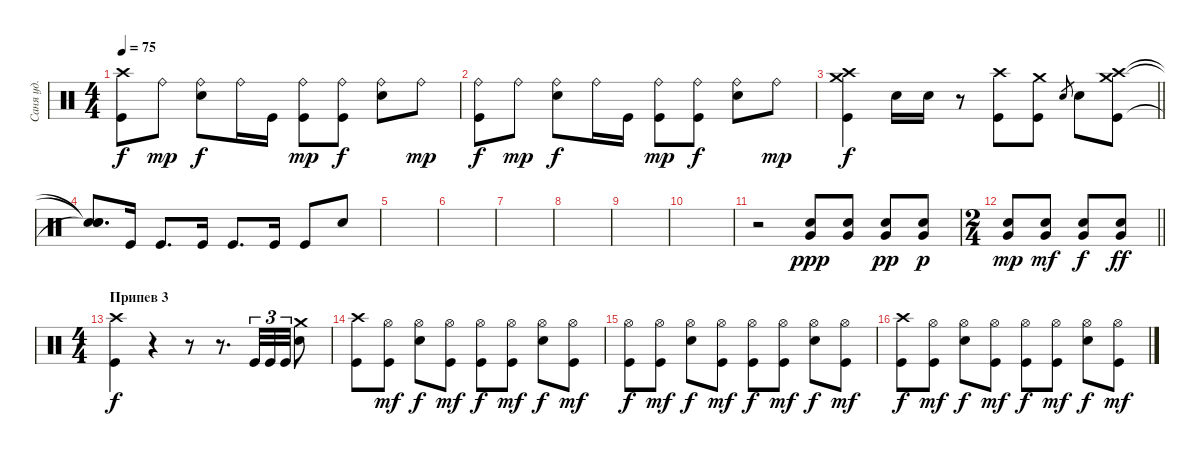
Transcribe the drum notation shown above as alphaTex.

\track ("Саня уд." "Саня уд.") {instrument percussion}
\staff {score}
\articulation defaults
\ts (4 4)
\tempo 75
\clef neutral
\ks c
("Kick (hit)" "Crash high (hit)").8{dy f} "Ride (bell)".8{dy mp} ("Ride (bell)" "Snare (hit) 2").8{dy f} "Ride (bell)".16 "Kick (hit)".16 ("Ride (bell)" "Kick (hit)").8{dy mp} ("Ride (bell)" "Kick (hit)").8{dy f} ("Ride (bell)" "Snare (hit) 2").8 "Ride (bell)".8{dy mp} |
("Kick (hit)" "Ride (bell)").8{dy f} "Ride (bell)".8{dy mp} ("Ride (bell)" "Snare (hit) 2").8{dy f} "Ride (bell)".16 "Kick (hit)".16 ("Ride (bell)" "Kick (hit)").8{dy mp} ("Ride (bell)" "Kick (hit)").8{dy f} ("Ride (bell)" "Snare (hit) 2").8 "Ride (bell)".8{dy mp} |
\barLineRight lightlight
("Crash high (hit)" "Crash medium (hit)" "Kick (hit)").4{dy f} "Snare (hit) 2".16 "Snare (hit) 2".16 r.8 ("Crash high (hit)" "Kick (hit)").8 ("Crash medium (hit)" "Kick (hit)").8 "Snare (hit) 2".8{gr} "Snare (hit) 2".8 ("Crash medium (hit)" "Crash high (hit)" "Kick (hit)").8 |
\section ("" "")
("Snare (hit)"{t} "Snare (hit)"{t} "Snare (hit)"{t}).8{d} "Kick (hit)".16 "Kick (hit)".8{d} "Kick (hit)".16 "Kick (hit)".8{d} "Kick (hit)".16 "Kick (hit)".8 "Snare (hit) 2".8 |
|
|
|
|
|
|
r.2 ("Snare (hit) 2" "Very Low Tom (hit)").8{dy ppp} ("Snare (hit) 2" "Very Low Tom (hit)").8 ("Snare (hit) 2" "Very Low Tom (hit)").8{dy pp} ("Snare (hit) 2" "Very Low Tom (hit)").8{dy p} |
\ts (2 4)
\barLineRight lightlight
("Very Low Tom (hit)" "Snare (hit) 2").8{dy mp} ("Very Low Tom (hit)" "Snare (hit) 2").8{dy mf} ("Very Low Tom (hit)" "Snare (hit) 2").8{dy f} ("Very Low Tom (hit)" "Snare (hit) 2").8{dy ff} |
\ts (4 4)
\section ("" "Припев 3")
("Kick (hit)" "Crash high (hit)").4{dy f} r.4 r.8 r.8{d} "Kick (hit)".32{tu (3 2)} "Kick (hit)".32{tu (3 2)} "Kick (hit)".32{tu (3 2)} ("Snare (hit) 2" "Crash medium (hit)").8 |
("Kick (hit)" "Crash high (hit)").8 ("Kick (hit)" "Hi-Hat (open)").8{dy mf} ("Snare (hit) 2" "Hi-Hat (open)").8{dy f} ("Kick (hit)" "Hi-Hat (open)").8{dy mf} ("Kick (hit)" "Hi-Hat (open)").8{dy f} ("Kick (hit)" "Hi-Hat (open)").8{dy mf} ("Snare (hit) 2" "Hi-Hat (open)").8{dy f} ("Kick (hit)" "Hi-Hat (open)").8{dy mf} |
("Kick (hit)" "Hi-Hat (open)").8{dy f} ("Kick (hit)" "Hi-Hat (open)").8{dy mf} ("Snare (hit) 2" "Hi-Hat (open)").8{dy f} ("Kick (hit)" "Hi-Hat (open)").8{dy mf} ("Kick (hit)" "Hi-Hat (open)").8{dy f} ("Kick (hit)" "Hi-Hat (open)").8{dy mf} ("Snare (hit) 2" "Hi-Hat (open)").8{dy f} ("Kick (hit)" "Hi-Hat (open)").8{dy mf} |
("Kick (hit)" "Crash high (hit)").8{dy f} ("Kick (hit)" "Hi-Hat (open)").8{dy mf} ("Snare (hit) 2" "Hi-Hat (open)").8{dy f} ("Kick (hit)" "Hi-Hat (open)").8{dy mf} ("Kick (hit)" "Hi-Hat (open)").8{dy f} ("Kick (hit)" "Hi-Hat (open)").8{dy mf} ("Snare (hit) 2" "Hi-Hat (open)").8{dy f} ("Kick (hit)" "Hi-Hat (open)").8{dy mf}
